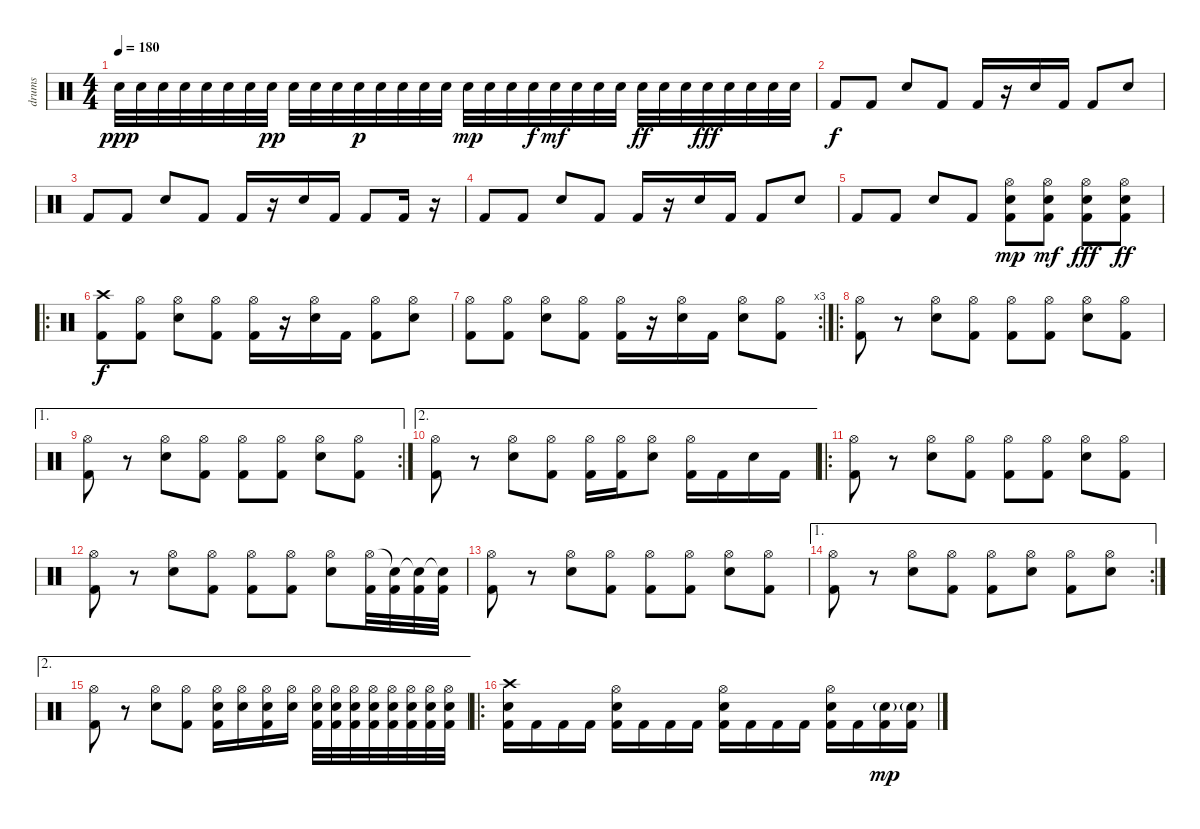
\track ("drums" "drums") {instrument percussion}
\staff {score}
\articulation defaults
\ts (4 4)
\tempo 180
\clef neutral
\ks c "Electric Snare (hit)".32{dy ppp} "Electric Snare (hit)".32 "Electric Snare (hit)".32 "Electric Snare (hit)".32 "Electric Snare (hit)".32 "Electric Snare (hit)".32 "Electric Snare (hit)".32 "Electric Snare (hit)".32{dy pp} "Electric Snare (hit)".32 "Electric Snare (hit)".32 "Electric Snare (hit)".32 "Electric Snare (hit)".32{dy p} "Electric Snare (hit)".32 "Electric Snare (hit)".32 "Electric Snare (hit)".32 "Electric Snare (hit)".32 "Electric Snare (hit)".32{dy mp} "Electric Snare (hit)".32 "Electric Snare (hit)".32 "Electric Snare (hit)".32{dy f} "Electric Snare (hit)".32{dy mf} "Electric Snare (hit)".32 "Electric Snare (hit)".32 "Electric Snare (hit)".32 "Electric Snare (hit)".32{dy ff} "Electric Snare (hit)".32 "Electric Snare (hit)".32 "Electric Snare (hit)".32{dy fff} "Electric Snare (hit)".32 "Electric Snare (hit)".32 "Electric Snare (hit)".32 "Electric Snare (hit)".32
|
"Kick (hit) 2".8{dy f} "Kick (hit) 2".8 "Electric Snare (hit)".8 "Kick (hit) 2".8 "Kick (hit) 2".16 r.16 "Electric Snare (hit)".16 "Kick (hit) 2".16 "Kick (hit) 2".8 "Electric Snare (hit)".8 |
"Kick (hit) 2".8 "Kick (hit) 2".8 "Electric Snare (hit)".8 "Kick (hit) 2".8 "Kick (hit) 2".16 r.16 "Electric Snare (hit)".16 "Kick (hit) 2".16 "Kick (hit) 2".8 "Kick (hit) 2".16 r.16 |
"Kick (hit) 2".8 "Kick (hit) 2".8 "Electric Snare (hit)".8 "Kick (hit) 2".8 "Kick (hit) 2".16 r.16 "Electric Snare (hit)".16 "Kick (hit) 2".16 "Kick (hit) 2".8 "Electric Snare (hit)".8 |
"Kick (hit) 2".8 "Kick (hit) 2".8 "Electric Snare (hit)".8 "Kick (hit) 2".8 ("Kick (hit) 2" "Hi-Hat (open)" "Electric Snare (hit)").8{dy mp} ("Kick (hit) 2" "Hi-Hat (open)" "Electric Snare (hit)").8{dy mf} ("Kick (hit) 2" "Hi-Hat (open)" "Electric Snare (hit)").8{dy fff} ("Kick (hit) 2" "Hi-Hat (open)" "Electric Snare (hit)").8{dy ff} |
\ro
("Crash high (hit)" "Kick (hit) 2").8{dy f} ("Hi-Hat (open)" "Kick (hit) 2").8 ("Hi-Hat (open)" "Electric Snare (hit)").8 ("Hi-Hat (open)" "Kick (hit) 2").8 ("Hi-Hat (open)" "Kick (hit) 2").16 r.16 ("Hi-Hat (open)" "Electric Snare (hit)").16 "Kick (hit) 2".16 ("Hi-Hat (open)" "Kick (hit) 2").8 ("Hi-Hat (open)" "Electric Snare (hit)").8 |
\rc 3
("Hi-Hat (open)" "Kick (hit) 2").8 ("Hi-Hat (open)" "Kick (hit) 2").8 ("Hi-Hat (open)" "Electric Snare (hit)").8 ("Hi-Hat (open)" "Kick (hit) 2").8 ("Hi-Hat (open)" "Kick (hit) 2").16 r.16 ("Hi-Hat (open)" "Electric Snare (hit)").16 "Kick (hit) 2".16 ("Hi-Hat (open)" "Electric Snare (hit)").8 ("Hi-Hat (open)" "Kick (hit) 2").8 |
\ro
("Hi-Hat (open)" "Kick (hit) 2").8 r.8 ("Hi-Hat (open)" "Electric Snare (hit)").8 ("Hi-Hat (open)" "Kick (hit) 2").8 ("Hi-Hat (open)" "Kick (hit) 2").8 ("Hi-Hat (open)" "Kick (hit) 2").8 ("Hi-Hat (open)" "Electric Snare (hit)").8 ("Hi-Hat (open)" "Kick (hit) 2").8 |
\ae 1
\rc 2
("Hi-Hat (open)" "Kick (hit) 2").8 r.8 ("Hi-Hat (open)" "Electric Snare (hit)").8 ("Hi-Hat (open)" "Kick (hit) 2").8 ("Hi-Hat (open)" "Kick (hit) 2").8 ("Hi-Hat (open)" "Kick (hit) 2").8 ("Hi-Hat (open)" "Electric Snare (hit)").8 ("Hi-Hat (open)" "Kick (hit) 2").8 |
\ae 2
("Hi-Hat (open)" "Kick (hit) 2").8 r.8 ("Hi-Hat (open)" "Electric Snare (hit)").8 ("Hi-Hat (open)" "Kick (hit) 2").8 ("Hi-Hat (open)" "Kick (hit) 2").16 ("Hi-Hat (open)" "Kick (hit) 2").16 ("Hi-Hat (open)" "Electric Snare (hit)").8 ("Hi-Hat (open)" "Kick (hit) 2").16 "Kick (hit) 2".16 "Electric Snare (hit)".16 "Kick (hit) 2".16 |
\ro
("Hi-Hat (open)" "Kick (hit) 2").8 r.8 ("Hi-Hat (open)" "Electric Snare (hit)").8 ("Hi-Hat (open)" "Kick (hit) 2").8 ("Hi-Hat (open)" "Kick (hit) 2").8 ("Hi-Hat (open)" "Kick (hit) 2").8 ("Hi-Hat (open)" "Electric Snare (hit)").8 ("Hi-Hat (open)" "Kick (hit) 2").8 |
("Hi-Hat (open)" "Kick (hit) 2").8 r.8 ("Hi-Hat (open)" "Electric Snare (hit)").8 ("Hi-Hat (open)" "Kick (hit) 2").8 ("Hi-Hat (open)" "Kick (hit) 2").8 ("Hi-Hat (open)" "Kick (hit) 2").8 ("Hi-Hat (open)" "Electric Snare (hit)").8 ("Hi-Hat (open)" "Kick (hit) 2").32 ("Snare (hit)"{t} "Kick (hit) 2").32 ("Snare (hit)"{t} "Kick (hit) 2").32 ("Snare (hit)"{t} "Kick (hit) 2").32 |
("Hi-Hat (open)" "Kick (hit) 2").8 r.8 ("Hi-Hat (open)" "Electric Snare (hit)").8 ("Hi-Hat (open)" "Kick (hit) 2").8 ("Hi-Hat (open)" "Kick (hit) 2").8 ("Hi-Hat (open)" "Kick (hit) 2").8 ("Hi-Hat (open)" "Electric Snare (hit)").8 ("Hi-Hat (open)" "Kick (hit) 2").8 |
\ae 1
\rc 2
("Hi-Hat (open)" "Kick (hit) 2").8 r.8 ("Hi-Hat (open)" "Electric Snare (hit)").8 ("Hi-Hat (open)" "Kick (hit) 2").8 ("Hi-Hat (open)" "Kick (hit) 2").8 ("Hi-Hat (open)" "Electric Snare (hit)").8 ("Hi-Hat (open)" "Kick (hit) 2").8 ("Hi-Hat (open)" "Electric Snare (hit)").8 |
\ae 2
("Hi-Hat (open)" "Kick (hit) 2").8 r.8 ("Hi-Hat (open)" "Electric Snare (hit)").8 ("Hi-Hat (open)" "Kick (hit) 2").8 ("Hi-Hat (open)" "Kick (hit) 2" "Electric Snare (hit)").16 ("Hi-Hat (open)" "Electric Snare (hit)").16 ("Hi-Hat (open)" "Kick (hit) 2" "Electric Snare (hit)").16 ("Hi-Hat (open)" "Electric Snare (hit)").16 ("Hi-Hat (open)" "Kick (hit) 2" "Electric Snare (hit)").32 ("Hi-Hat (open)" "Kick (hit) 2" "Electric Snare (hit)").32 ("Hi-Hat (open)" "Kick (hit) 2" "Electric Snare (hit)").32 ("Hi-Hat (open)" "Kick (hit) 2" "Electric Snare (hit)").32 ("Hi-Hat (open)" "Kick (hit) 2" "Electric Snare (hit)").32 ("Hi-Hat (open)" "Kick (hit) 2" "Electric Snare (hit)").32 ("Hi-Hat (open)" "Kick (hit) 2" "Electric Snare (hit)").32 ("Hi-Hat (open)" "Kick (hit) 2" "Electric Snare (hit)").32 |
\ro
("Crash high (hit)" "Electric Snare (hit)" "Kick (hit) 2").16 "Kick (hit) 2".16 "Kick (hit) 2".16 "Kick (hit) 2".16 ("Hi-Hat (open)" "Electric Snare (hit)" "Kick (hit) 2").16 "Kick (hit) 2".16 "Kick (hit) 2".16 "Kick (hit) 2".16 ("Hi-Hat (open)" "Electric Snare (hit)" "Kick (hit) 2").16 "Kick (hit) 2".16 "Kick (hit) 2".16 "Kick (hit) 2".16 ("Hi-Hat (open)" "Electric Snare (hit)" "Kick (hit) 2").16 "Kick (hit) 2".16 ("Electric Snare (hit)"{g} "Kick (hit) 2").16{dy mp} ("Electric Snare (hit)"{g} "Kick (hit) 2").16
